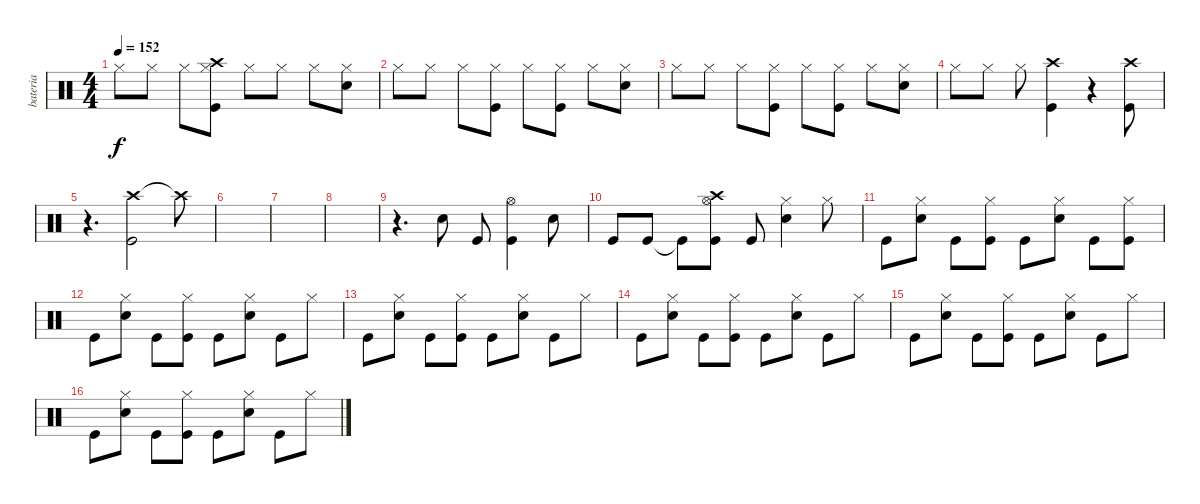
\track ("bateria" "bateria") {instrument percussion}
\staff {score}
\articulation defaults
\ts (4 4)
\tempo 152
\clef neutral
\ks c "Hi-Hat (closed)".8{dy f} "Hi-Hat (closed)".8 "Hi-Hat (closed)".8
("Hi-Hat (closed)" "Kick (hit)" "Crash high (hit)").8 "Hi-Hat (closed)".8 "Hi-Hat (closed)".8 "Hi-Hat (closed)".8 ("Hi-Hat (closed)" "Electric Snare (hit)").8 |
"Hi-Hat (closed)".8 "Hi-Hat (closed)".8 "Hi-Hat (closed)".8 ("Hi-Hat (closed)" "Kick (hit)").8 "Hi-Hat (closed)".8 ("Hi-Hat (closed)" "Kick (hit)").8 "Hi-Hat (closed)".8 ("Hi-Hat (closed)" "Electric Snare (hit)").8 |
"Hi-Hat (closed)".8 "Hi-Hat (closed)".8 "Hi-Hat (closed)".8 ("Hi-Hat (closed)" "Kick (hit)").8 "Hi-Hat (closed)".8 ("Hi-Hat (closed)" "Kick (hit)").8 "Hi-Hat (closed)".8 ("Hi-Hat (closed)" "Electric Snare (hit)").8 |
"Hi-Hat (closed)".8 "Hi-Hat (closed)".8 "Hi-Hat (closed)".8 ("Crash high (hit)" "Kick (hit)").4 r.4 ("Crash high (hit)" "Kick (hit)").8 |
r.4{d} ("Crash high (hit)" "Kick (hit)").2 "Crash high (hit)"{t}.8 |
|
|
|
r.4{d} "Electric Snare (hit)".8 "Kick (hit)".8 ("Hi-Hat (open)" "Kick (hit)").4 "Electric Snare (hit)".8 |
"Kick (hit)".8 "Kick (hit)".8 "Kick (hit)"{t}.8 ("Hi-Hat (open)" "Kick (hit)" "Crash high (hit)").8 "Kick (hit)".8 ("Electric Snare (hit)" "Hi-Hat (closed)").4 "Hi-Hat (closed)".8 |
"Kick (hit)".8 ("Hi-Hat (closed)" "Electric Snare (hit)").8 "Kick (hit)".8 ("Hi-Hat (closed)" "Kick (hit)").8 "Kick (hit)".8 ("Hi-Hat (closed)" "Electric Snare (hit)").8 "Kick (hit)".8 ("Hi-Hat (closed)" "Kick (hit)").8 |
"Kick (hit)".8 ("Hi-Hat (closed)" "Electric Snare (hit)").8 "Kick (hit)".8 ("Hi-Hat (closed)" "Kick (hit)").8 "Kick (hit)".8 ("Hi-Hat (closed)" "Electric Snare (hit)").8 "Kick (hit)".8 "Hi-Hat (closed)".8 |
"Kick (hit)".8 ("Hi-Hat (closed)" "Electric Snare (hit)").8 "Kick (hit)".8 ("Hi-Hat (closed)" "Kick (hit)").8 "Kick (hit)".8 ("Hi-Hat (closed)" "Electric Snare (hit)").8 "Kick (hit)".8 "Hi-Hat (closed)".8 |
"Kick (hit)".8 ("Hi-Hat (closed)" "Electric Snare (hit)").8 "Kick (hit)".8 ("Hi-Hat (closed)" "Kick (hit)").8 "Kick (hit)".8 ("Hi-Hat (closed)" "Electric Snare (hit)").8 "Kick (hit)".8 "Hi-Hat (closed)".8 |
"Kick (hit)".8 ("Hi-Hat (closed)" "Electric Snare (hit)").8 "Kick (hit)".8 ("Hi-Hat (closed)" "Kick (hit)").8 "Kick (hit)".8 ("Hi-Hat (closed)" "Electric Snare (hit)").8 "Kick (hit)".8 "Hi-Hat (closed)".8 |
"Kick (hit)".8 ("Hi-Hat (closed)" "Electric Snare (hit)").8 "Kick (hit)".8 ("Hi-Hat (closed)" "Kick (hit)").8 "Kick (hit)".8 ("Hi-Hat (closed)" "Electric Snare (hit)").8 "Kick (hit)".8 "Hi-Hat (closed)".8
